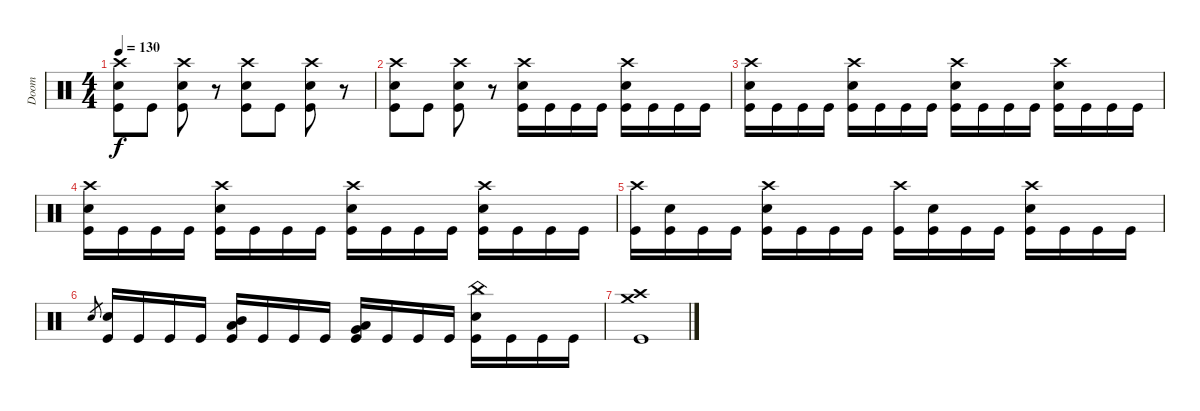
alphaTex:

\track ("Doom" "Doom") {instrument percussion}
\staff {score}
\articulation defaults
\ts (4 4)
\tempo 130
\clef neutral
\ks c
("Crash high (hit)" "Electric Snare (hit)" "Kick (hit)").8{dy f} "Kick (hit)".8 ("Crash high (hit)" "Electric Snare (hit)" "Kick (hit)").8 r.8 ("Crash high (hit)" "Electric Snare (hit)" "Kick (hit)").8 "Kick (hit)".8 ("Crash high (hit)" "Electric Snare (hit)" "Kick (hit)").8 r.8 |
("Crash high (hit)" "Electric Snare (hit)" "Kick (hit)").8 "Kick (hit)".8 ("Crash high (hit)" "Electric Snare (hit)" "Kick (hit)").8 r.8 ("Crash high (hit)" "Electric Snare (hit)" "Kick (hit)").16 "Kick (hit)".16 "Kick (hit)".16 "Kick (hit)".16 ("Crash high (hit)" "Electric Snare (hit)" "Kick (hit)").16 "Kick (hit)".16 "Kick (hit)".16 "Kick (hit)".16 |
("Crash high (hit)" "Electric Snare (hit)" "Kick (hit)").16 "Kick (hit)".16 "Kick (hit)".16 "Kick (hit)".16 ("Crash high (hit)" "Electric Snare (hit)" "Kick (hit)").16 "Kick (hit)".16 "Kick (hit)".16 "Kick (hit)".16 ("Crash high (hit)" "Electric Snare (hit)" "Kick (hit)").16 "Kick (hit)".16 "Kick (hit)".16 "Kick (hit)".16 ("Crash high (hit)" "Electric Snare (hit)" "Kick (hit)").16 "Kick (hit)".16 "Kick (hit)".16 "Kick (hit)".16 |
("Crash high (hit)" "Electric Snare (hit)" "Kick (hit)").16 "Kick (hit)".16 "Kick (hit)".16 "Kick (hit)".16 ("Crash high (hit)" "Electric Snare (hit)" "Kick (hit)").16 "Kick (hit)".16 "Kick (hit)".16 "Kick (hit)".16 ("Crash high (hit)" "Electric Snare (hit)" "Kick (hit)").16 "Kick (hit)".16 "Kick (hit)".16 "Kick (hit)".16 ("Crash high (hit)" "Electric Snare (hit)" "Kick (hit)").16 "Kick (hit)".16 "Kick (hit)".16 "Kick (hit)".16 |
("Crash high (hit)" "Kick (hit)").16 ("Electric Snare (hit)" "Kick (hit)").16 "Kick (hit)".16 "Kick (hit)".16 ("Crash high (hit)" "Electric Snare (hit)" "Kick (hit)").16 "Kick (hit)".16 "Kick (hit)".16 "Kick (hit)".16 ("Crash high (hit)" "Kick (hit)").16 ("Electric Snare (hit)" "Kick (hit)").16 "Kick (hit)".16 "Kick (hit)".16 ("Crash high (hit)" "Electric Snare (hit)" "Kick (hit)").16 "Kick (hit)".16 "Kick (hit)".16 "Kick (hit)".16 |
"Electric Snare (hit)".8{gr} ("Electric Snare (hit)" "Kick (hit)").16 "Kick (hit)".16 "Kick (hit)".16 "Kick (hit)".16 ("Low Tom (hit)" "Mid Tom (hit)" "Kick (hit)").16 "Kick (hit)".16 "Kick (hit)".16 "Kick (hit)".16 ("Very Low Tom (hit)" "Low Tom (hit)" "Kick (hit)").16 "Kick (hit)".16 "Kick (hit)".16 "Kick (hit)".16 ("China (hit)" "Electric Snare (hit)" "Kick (hit)").16 "Kick (hit)".16 "Kick (hit)".16 "Kick (hit)".16 |
("Crash high (hit)" "Crash medium (hit)" "Kick (hit)").1
